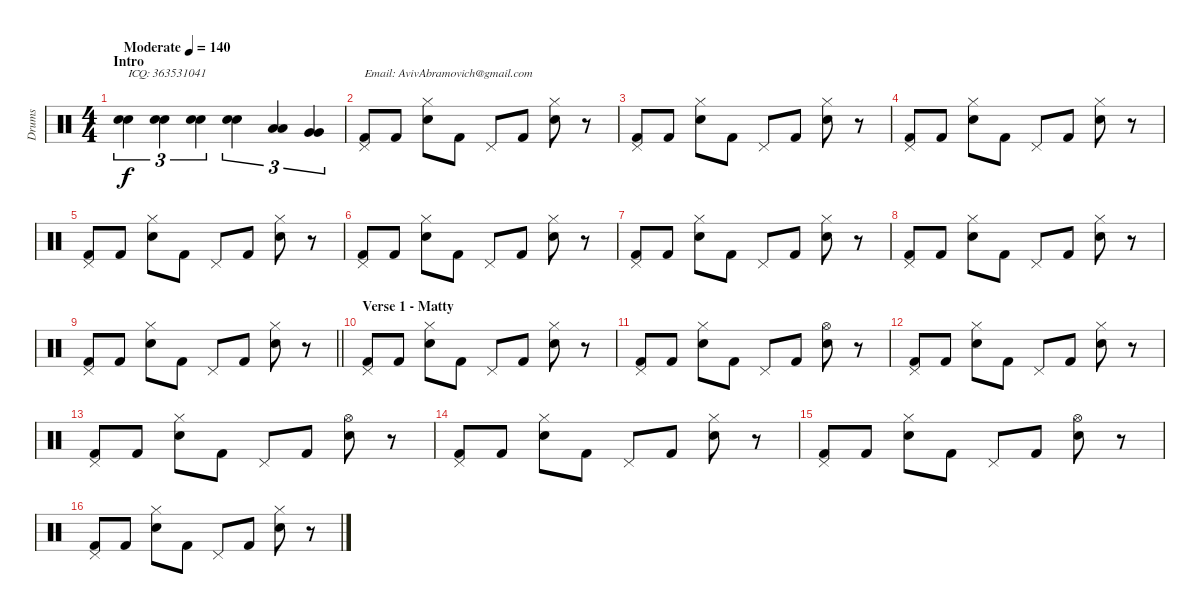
\track ("Drums" "Drums") {instrument percussion bank 127}
\staff {score}
\articulation defaults
\ts (4 4)
\section ("" "Intro")
\tempo (140 "Moderate")
\clef neutral
\ks c
("Electric Snare (hit)" "Electric Snare (hit)").4{tu (3 2) txt "ICQ: 363531041" dy f} ("Electric Snare (hit)" "Electric Snare (hit)").4{tu (3 2)} ("Electric Snare (hit)" "Electric Snare (hit)").4{tu (3 2)} ("Electric Snare (hit)" "Electric Snare (hit)").4{tu (3 2)} ("Low Tom (hit)" "Low Tom (hit)").4{tu (3 2)} ("Very Low Tom (hit)" "Very Low Tom (hit)").4{tu (3 2)} |
("Pedal Hi-Hat (hit)" "Kick (hit) 2").8{txt "Email: AvivAbramovich@gmail.com"} "Kick (hit) 2".8 ("Hi-Hat (closed)" "Electric Snare (hit)").8 "Kick (hit) 2".8 "Pedal Hi-Hat (hit)".8 "Kick (hit) 2".8 ("Hi-Hat (closed)" "Electric Snare (hit)").8 r.8 |
("Pedal Hi-Hat (hit)" "Kick (hit) 2").8 "Kick (hit) 2".8 ("Hi-Hat (closed)" "Electric Snare (hit)").8 "Kick (hit) 2".8 "Pedal Hi-Hat (hit)".8 "Kick (hit) 2".8 ("Hi-Hat (closed)" "Electric Snare (hit)").8 r.8 |
("Pedal Hi-Hat (hit)" "Kick (hit) 2").8 "Kick (hit) 2".8 ("Hi-Hat (closed)" "Electric Snare (hit)").8 "Kick (hit) 2".8 "Pedal Hi-Hat (hit)".8 "Kick (hit) 2".8 ("Hi-Hat (closed)" "Electric Snare (hit)").8 r.8 |
("Pedal Hi-Hat (hit)" "Kick (hit) 2").8 "Kick (hit) 2".8 ("Hi-Hat (closed)" "Electric Snare (hit)").8 "Kick (hit) 2".8 "Pedal Hi-Hat (hit)".8 "Kick (hit) 2".8 ("Hi-Hat (closed)" "Electric Snare (hit)").8 r.8 |
("Pedal Hi-Hat (hit)" "Kick (hit) 2").8 "Kick (hit) 2".8 ("Hi-Hat (closed)" "Electric Snare (hit)").8 "Kick (hit) 2".8 "Pedal Hi-Hat (hit)".8 "Kick (hit) 2".8 ("Hi-Hat (closed)" "Electric Snare (hit)").8 r.8 |
("Pedal Hi-Hat (hit)" "Kick (hit) 2").8 "Kick (hit) 2".8 ("Hi-Hat (closed)" "Electric Snare (hit)").8 "Kick (hit) 2".8 "Pedal Hi-Hat (hit)".8 "Kick (hit) 2".8 ("Hi-Hat (closed)" "Electric Snare (hit)").8 r.8 |
("Pedal Hi-Hat (hit)" "Kick (hit) 2").8 "Kick (hit) 2".8 ("Hi-Hat (closed)" "Electric Snare (hit)").8 "Kick (hit) 2".8 "Pedal Hi-Hat (hit)".8 "Kick (hit) 2".8 ("Hi-Hat (closed)" "Electric Snare (hit)").8 r.8 |
\barLineRight lightlight
("Pedal Hi-Hat (hit)" "Kick (hit) 2").8 "Kick (hit) 2".8 ("Hi-Hat (closed)" "Electric Snare (hit)").8 "Kick (hit) 2".8 "Pedal Hi-Hat (hit)".8 "Kick (hit) 2".8 ("Hi-Hat (closed)" "Electric Snare (hit)").8 r.8 |
\section ("" "Verse 1 - Matty")
("Pedal Hi-Hat (hit)" "Kick (hit) 2").8 "Kick (hit) 2".8 ("Hi-Hat (closed)" "Electric Snare (hit)").8 "Kick (hit) 2".8 "Pedal Hi-Hat (hit)".8 "Kick (hit) 2".8 ("Hi-Hat (closed)" "Electric Snare (hit)").8 r.8 |
("Pedal Hi-Hat (hit)" "Kick (hit) 2").8 "Kick (hit) 2".8 ("Hi-Hat (closed)" "Electric Snare (hit)").8 "Kick (hit) 2".8 "Pedal Hi-Hat (hit)".8 "Kick (hit) 2".8 ("Hi-Hat (open)" "Electric Snare (hit)").8 r.8 |
("Pedal Hi-Hat (hit)" "Kick (hit) 2").8 "Kick (hit) 2".8 ("Hi-Hat (closed)" "Electric Snare (hit)").8 "Kick (hit) 2".8 "Pedal Hi-Hat (hit)".8 "Kick (hit) 2".8 ("Hi-Hat (closed)" "Electric Snare (hit)").8 r.8 |
("Pedal Hi-Hat (hit)" "Kick (hit) 2").8 "Kick (hit) 2".8 ("Hi-Hat (closed)" "Electric Snare (hit)").8 "Kick (hit) 2".8 "Pedal Hi-Hat (hit)".8 "Kick (hit) 2".8 ("Hi-Hat (open)" "Electric Snare (hit)").8 r.8 |
("Pedal Hi-Hat (hit)" "Kick (hit) 2").8 "Kick (hit) 2".8 ("Hi-Hat (closed)" "Electric Snare (hit)").8 "Kick (hit) 2".8 "Pedal Hi-Hat (hit)".8 "Kick (hit) 2".8 ("Hi-Hat (closed)" "Electric Snare (hit)").8 r.8 |
("Pedal Hi-Hat (hit)" "Kick (hit) 2").8 "Kick (hit) 2".8 ("Hi-Hat (closed)" "Electric Snare (hit)").8 "Kick (hit) 2".8 "Pedal Hi-Hat (hit)".8 "Kick (hit) 2".8 ("Hi-Hat (open)" "Electric Snare (hit)").8 r.8 |
("Pedal Hi-Hat (hit)" "Kick (hit) 2").8 "Kick (hit) 2".8 ("Hi-Hat (closed)" "Electric Snare (hit)").8 "Kick (hit) 2".8 "Pedal Hi-Hat (hit)".8 "Kick (hit) 2".8 ("Hi-Hat (closed)" "Electric Snare (hit)").8 r.8
